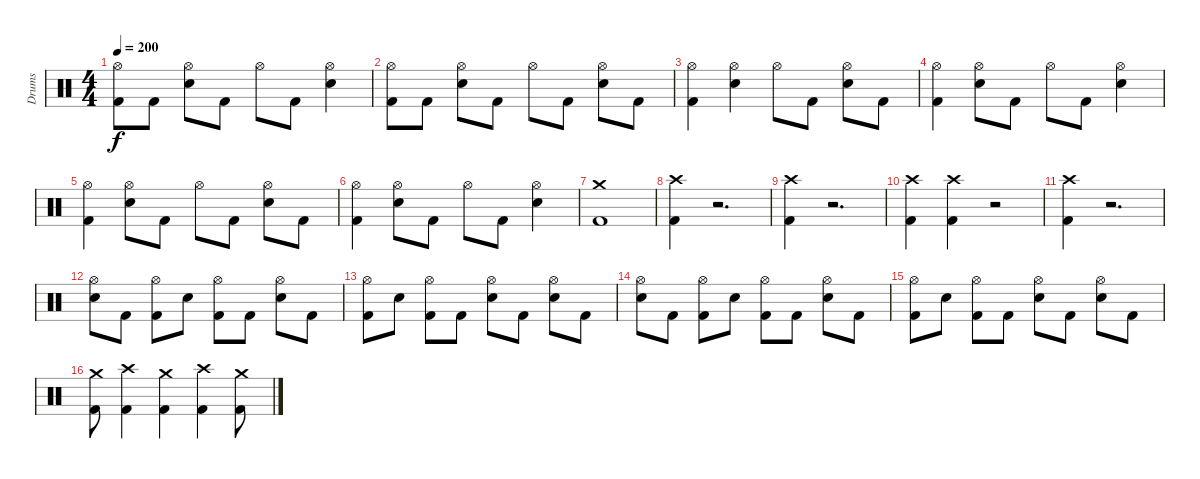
\track ("Drums" "Drums") {instrument percussion}
\staff {score}
\articulation defaults
\ts (4 4)
\tempo 200
\clef neutral
\ks c
("Hi-Hat (open)" "Kick (hit) 2").8{dy f} "Kick (hit) 2".8 ("Hi-Hat (open)" "Snare (hit) 2").8 "Kick (hit) 2".8 "Hi-Hat (open)".8 "Kick (hit) 2".8 ("Hi-Hat (open)" "Snare (hit) 2").4 |
("Hi-Hat (open)" "Kick (hit) 2").8 "Kick (hit) 2".8 ("Hi-Hat (open)" "Snare (hit) 2").8 "Kick (hit) 2".8 "Hi-Hat (open)".8 "Kick (hit) 2".8 ("Hi-Hat (open)" "Snare (hit) 2").8 "Kick (hit) 2".8 |
("Hi-Hat (open)" "Kick (hit) 2").4 ("Hi-Hat (open)" "Snare (hit) 2").4 "Hi-Hat (open)".8 "Kick (hit) 2".8 ("Hi-Hat (open)" "Snare (hit) 2").8 "Kick (hit) 2".8 |
("Hi-Hat (open)" "Kick (hit) 2").4 ("Hi-Hat (open)" "Snare (hit) 2").8 "Kick (hit) 2".8 "Hi-Hat (open)".8 "Kick (hit) 2".8 ("Hi-Hat (open)" "Snare (hit) 2").4 |
("Hi-Hat (open)" "Kick (hit) 2").4 ("Hi-Hat (open)" "Snare (hit) 2").8 "Kick (hit) 2".8 "Hi-Hat (open)".8 "Kick (hit) 2".8 ("Hi-Hat (open)" "Snare (hit) 2").8 "Kick (hit) 2".8 |
("Hi-Hat (open)" "Kick (hit) 2").4 ("Hi-Hat (open)" "Snare (hit) 2").8 "Kick (hit) 2".8 "Hi-Hat (open)".8 "Kick (hit) 2".8 ("Hi-Hat (open)" "Snare (hit) 2").4 |
("Crash medium (hit)" "Kick (hit) 2").1 |
("Crash high (hit)" "Kick (hit) 2").4 r.2{d} |
("Crash high (hit)" "Kick (hit) 2").4 r.2{d} |
("Crash high (hit)" "Kick (hit) 2").4 ("Crash high (hit)" "Kick (hit) 2").4 r.2 |
("Crash high (hit)" "Kick (hit) 2").4 r.2{d} |
("Hi-Hat (open)" "Snare (hit) 2").8 "Kick (hit) 2".8 ("Hi-Hat (open)" "Kick (hit) 2").8 "Snare (hit) 2".8 ("Hi-Hat (open)" "Kick (hit) 2").8 "Kick (hit) 2".8 ("Hi-Hat (open)" "Snare (hit) 2").8 "Kick (hit) 2".8 |
("Hi-Hat (open)" "Kick (hit) 2").8 "Snare (hit) 2".8 ("Hi-Hat (open)" "Kick (hit) 2").8 "Kick (hit) 2".8 ("Hi-Hat (open)" "Snare (hit) 2").8 "Kick (hit) 2".8 ("Hi-Hat (open)" "Snare (hit) 2").8 "Kick (hit) 2".8 |
("Hi-Hat (open)" "Snare (hit) 2").8 "Kick (hit) 2".8 ("Hi-Hat (open)" "Kick (hit) 2").8 "Snare (hit) 2".8 ("Hi-Hat (open)" "Kick (hit) 2").8 "Kick (hit) 2".8 ("Hi-Hat (open)" "Snare (hit) 2").8 "Kick (hit) 2".8 |
("Hi-Hat (open)" "Kick (hit) 2").8 "Snare (hit) 2".8 ("Hi-Hat (open)" "Kick (hit) 2").8 "Kick (hit) 2".8 ("Hi-Hat (open)" "Snare (hit) 2").8 "Kick (hit) 2".8 ("Hi-Hat (open)" "Snare (hit) 2").8 "Kick (hit) 2".8 |
("Crash medium (hit)" "Kick (hit) 2").8 ("Crash high (hit)" "Kick (hit) 2").4 ("Crash medium (hit)" "Kick (hit) 2").4 ("Crash high (hit)" "Kick (hit) 2").4 ("Crash medium (hit)" "Kick (hit) 2").8
